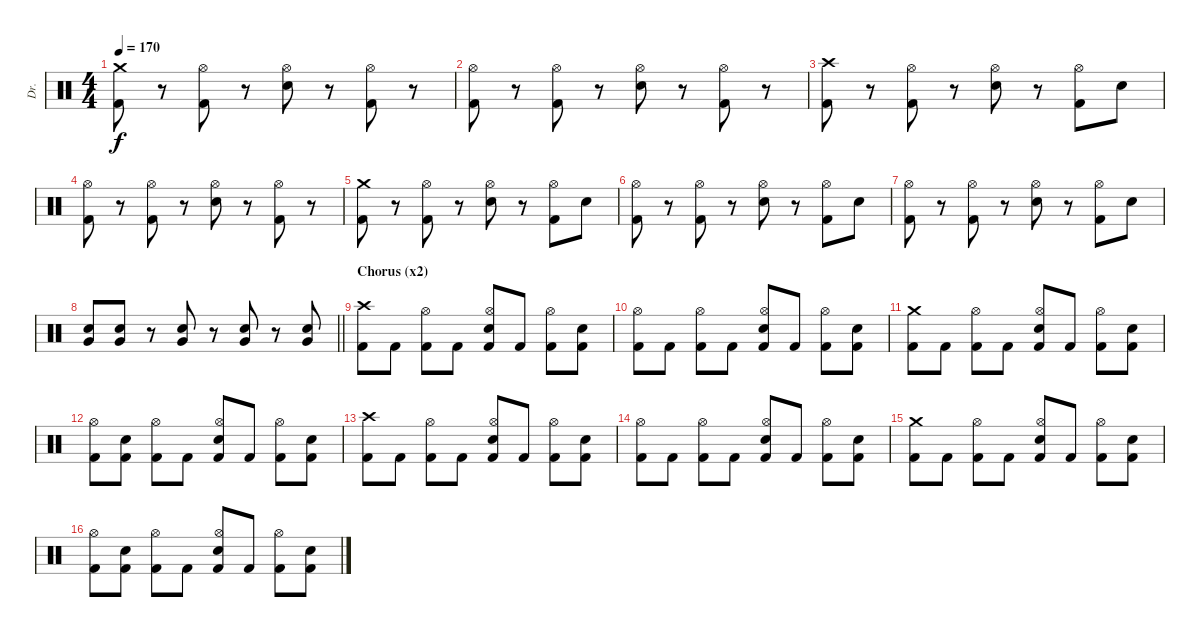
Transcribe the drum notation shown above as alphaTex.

\track ("Dr." "Dr.") {instrument percussion}
\staff {score}
\articulation defaults
\ts (4 4)
\tempo 170
\clef neutral
\ks c
("Crash medium (hit)" "Kick (hit) 2").8{dy f} r.8 ("Hi-Hat (open)" "Kick (hit) 2").8 r.8 ("Hi-Hat (open)" "Electric Snare (hit)").8 r.8 ("Hi-Hat (open)" "Kick (hit) 2").8 r.8 |
("Hi-Hat (open)" "Kick (hit) 2").8 r.8 ("Hi-Hat (open)" "Kick (hit) 2").8 r.8 ("Hi-Hat (open)" "Electric Snare (hit)").8 r.8 ("Hi-Hat (open)" "Kick (hit) 2").8 r.8 |
("Crash high (hit)" "Kick (hit) 2").8 r.8 ("Hi-Hat (open)" "Kick (hit) 2").8 r.8 ("Hi-Hat (open)" "Electric Snare (hit)").8 r.8 ("Hi-Hat (open)" "Kick (hit) 2").8 "Electric Snare (hit)".8 |
("Hi-Hat (open)" "Kick (hit) 2").8 r.8 ("Hi-Hat (open)" "Kick (hit) 2").8 r.8 ("Hi-Hat (open)" "Electric Snare (hit)").8 r.8 ("Hi-Hat (open)" "Kick (hit) 2").8 r.8 |
("Crash medium (hit)" "Kick (hit) 2").8 r.8 ("Hi-Hat (open)" "Kick (hit) 2").8 r.8 ("Hi-Hat (open)" "Electric Snare (hit)").8 r.8 ("Hi-Hat (open)" "Kick (hit) 2").8 "Electric Snare (hit)".8 |
("Hi-Hat (open)" "Kick (hit) 2").8 r.8 ("Hi-Hat (open)" "Kick (hit) 2").8 r.8 ("Hi-Hat (open)" "Electric Snare (hit)").8 r.8 ("Hi-Hat (open)" "Kick (hit) 2").8 "Electric Snare (hit)".8 |
("Hi-Hat (open)" "Kick (hit) 2").8 r.8 ("Hi-Hat (open)" "Kick (hit) 2").8 r.8 ("Hi-Hat (open)" "Electric Snare (hit)").8 r.8 ("Hi-Hat (open)" "Kick (hit) 2").8 "Electric Snare (hit)".8 |
\barLineRight lightlight
("Very Low Tom (hit)" "Electric Snare (hit)").8 ("Very Low Tom (hit)" "Electric Snare (hit)").8 r.8 ("Very Low Tom (hit)" "Electric Snare (hit)").8 r.8 ("Very Low Tom (hit)" "Electric Snare (hit)").8 r.8 ("Very Low Tom (hit)" "Electric Snare (hit)").8 |
\section ("" "Chorus (x2)")
("Crash high (hit)" "Kick (hit) 2").8 "Kick (hit) 2".8 ("Hi-Hat (open)" "Kick (hit) 2").8 "Kick (hit) 2".8 ("Hi-Hat (open)" "Electric Snare (hit)" "Kick (hit) 2").8 "Kick (hit) 2".8 ("Hi-Hat (open)" "Kick (hit) 2").8 ("Electric Snare (hit)" "Kick (hit) 2").8 |
("Hi-Hat (open)" "Kick (hit) 2").8 "Kick (hit) 2".8 ("Hi-Hat (open)" "Kick (hit) 2").8 "Kick (hit) 2".8 ("Hi-Hat (open)" "Electric Snare (hit)" "Kick (hit) 2").8 "Kick (hit) 2".8 ("Hi-Hat (open)" "Kick (hit) 2").8 ("Electric Snare (hit)" "Kick (hit) 2").8 |
("Crash medium (hit)" "Kick (hit) 2").8 "Kick (hit) 2".8 ("Hi-Hat (open)" "Kick (hit) 2").8 "Kick (hit) 2".8 ("Hi-Hat (open)" "Electric Snare (hit)" "Kick (hit) 2").8 "Kick (hit) 2".8 ("Hi-Hat (open)" "Kick (hit) 2").8 ("Electric Snare (hit)" "Kick (hit) 2").8 |
("Hi-Hat (open)" "Kick (hit) 2").8 ("Electric Snare (hit)" "Kick (hit) 2").8 ("Hi-Hat (open)" "Kick (hit) 2").8 "Kick (hit) 2".8 ("Hi-Hat (open)" "Electric Snare (hit)" "Kick (hit) 2").8 "Kick (hit) 2".8 ("Hi-Hat (open)" "Kick (hit) 2").8 ("Electric Snare (hit)" "Kick (hit) 2").8 |
("Crash high (hit)" "Kick (hit) 2").8 "Kick (hit) 2".8 ("Hi-Hat (open)" "Kick (hit) 2").8 "Kick (hit) 2".8 ("Hi-Hat (open)" "Electric Snare (hit)" "Kick (hit) 2").8 "Kick (hit) 2".8 ("Hi-Hat (open)" "Kick (hit) 2").8 ("Electric Snare (hit)" "Kick (hit) 2").8 |
("Hi-Hat (open)" "Kick (hit) 2").8 "Kick (hit) 2".8 ("Hi-Hat (open)" "Kick (hit) 2").8 "Kick (hit) 2".8 ("Hi-Hat (open)" "Electric Snare (hit)" "Kick (hit) 2").8 "Kick (hit) 2".8 ("Hi-Hat (open)" "Kick (hit) 2").8 ("Electric Snare (hit)" "Kick (hit) 2").8 |
("Crash medium (hit)" "Kick (hit) 2").8 "Kick (hit) 2".8 ("Hi-Hat (open)" "Kick (hit) 2").8 "Kick (hit) 2".8 ("Hi-Hat (open)" "Electric Snare (hit)" "Kick (hit) 2").8 "Kick (hit) 2".8 ("Hi-Hat (open)" "Kick (hit) 2").8 ("Electric Snare (hit)" "Kick (hit) 2").8 |
("Hi-Hat (open)" "Kick (hit) 2").8 ("Electric Snare (hit)" "Kick (hit) 2").8 ("Hi-Hat (open)" "Kick (hit) 2").8 "Kick (hit) 2".8 ("Hi-Hat (open)" "Electric Snare (hit)" "Kick (hit) 2").8 "Kick (hit) 2".8 ("Hi-Hat (open)" "Kick (hit) 2").8 ("Electric Snare (hit)" "Kick (hit) 2").8
